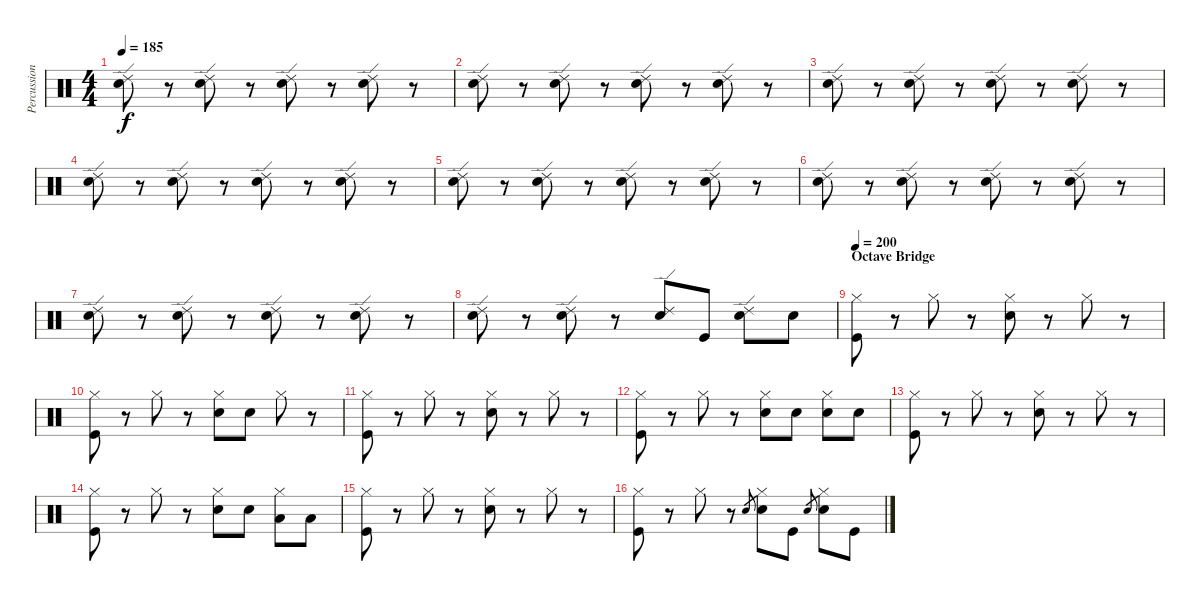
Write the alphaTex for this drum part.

\track ("Percussion" "Percussion") {instrument percussion}
\staff {score}
\articulation defaults
\ts (4 4)
\tempo 185
\clef neutral
\ks c
("Ride (edge) 2" "Snare (hit) 2").8{dy f} r.8 ("Ride (edge) 2" "Snare (hit) 2").8 r.8 ("Ride (edge) 2" "Snare (hit) 2").8 r.8 ("Ride (edge) 2" "Snare (hit) 2").8 r.8 |
("Ride (edge) 2" "Snare (hit) 2").8 r.8 ("Ride (edge) 2" "Snare (hit) 2").8 r.8 ("Ride (edge) 2" "Snare (hit) 2").8 r.8 ("Ride (edge) 2" "Snare (hit) 2").8 r.8 |
("Ride (edge) 2" "Snare (hit) 2").8 r.8 ("Ride (edge) 2" "Snare (hit) 2").8 r.8 ("Ride (edge) 2" "Snare (hit) 2").8 r.8 ("Ride (edge) 2" "Snare (hit) 2").8 r.8 |
("Ride (edge) 2" "Snare (hit) 2").8 r.8 ("Ride (edge) 2" "Snare (hit) 2").8 r.8 ("Ride (edge) 2" "Snare (hit) 2").8 r.8 ("Ride (edge) 2" "Snare (hit) 2").8 r.8 |
("Ride (edge) 2" "Snare (hit) 2").8 r.8 ("Ride (edge) 2" "Snare (hit) 2").8 r.8 ("Ride (edge) 2" "Snare (hit) 2").8 r.8 ("Ride (edge) 2" "Snare (hit) 2").8 r.8 |
("Ride (edge) 2" "Snare (hit) 2").8 r.8 ("Ride (edge) 2" "Snare (hit) 2").8 r.8 ("Ride (edge) 2" "Snare (hit) 2").8 r.8 ("Ride (edge) 2" "Snare (hit) 2").8 r.8 |
("Ride (edge) 2" "Snare (hit) 2").8 r.8 ("Ride (edge) 2" "Snare (hit) 2").8 r.8 ("Ride (edge) 2" "Snare (hit) 2").8 r.8 ("Ride (edge) 2" "Snare (hit) 2").8 r.8 |
("Ride (edge) 2" "Snare (hit) 2").8 r.8 ("Ride (edge) 2" "Snare (hit) 2").8 r.8 ("Ride (edge) 2" "Snare (hit) 2").8 "Kick (hit)".8 ("Ride (edge) 2" "Snare (hit) 2").8 "Snare (hit) 2".8 |
\section ("" "Octave Bridge")
\tempo 200
("Hi-Hat (closed)" "Kick (hit)").8 r.8 "Hi-Hat (closed)".8 r.8 ("Hi-Hat (closed)" "Snare (hit) 2").8 r.8 "Hi-Hat (closed)".8 r.8 |
("Hi-Hat (closed)" "Kick (hit)").8 r.8 "Hi-Hat (closed)".8 r.8 ("Hi-Hat (closed)" "Snare (hit) 2").8 "Snare (hit) 2".8 "Hi-Hat (closed)".8 r.8 |
("Hi-Hat (closed)" "Kick (hit)").8 r.8 "Hi-Hat (closed)".8 r.8 ("Hi-Hat (closed)" "Snare (hit) 2").8 r.8 "Hi-Hat (closed)".8 r.8 |
("Hi-Hat (closed)" "Kick (hit)").8 r.8 "Hi-Hat (closed)".8 r.8 ("Hi-Hat (closed)" "Snare (hit) 2").8 "Snare (hit) 2".8 ("Hi-Hat (closed)" "Snare (hit) 2").8 "Snare (hit) 2".8 |
("Hi-Hat (closed)" "Kick (hit)").8 r.8 "Hi-Hat (closed)".8 r.8 ("Hi-Hat (closed)" "Snare (hit) 2").8 r.8 "Hi-Hat (closed)".8 r.8 |
("Hi-Hat (closed)" "Kick (hit)").8 r.8 "Hi-Hat (closed)".8 r.8 ("Hi-Hat (closed)" "Snare (hit) 2").8 "Snare (hit) 2".8 ("Hi-Hat (closed)" "Low Tom (hit)").8 "Low Tom (hit)".8 |
("Hi-Hat (closed)" "Kick (hit)").8 r.8 "Hi-Hat (closed)".8 r.8 ("Hi-Hat (closed)" "Snare (hit) 2").8 r.8 "Hi-Hat (closed)".8 r.8 |
("Hi-Hat (closed)" "Kick (hit)").8 r.8 "Hi-Hat (closed)".8 r.8 "Snare (hit) 2".8{gr} ("Hi-Hat (closed)" "Snare (hit) 2").8 "Kick (hit)".8 "Snare (hit) 2".8{gr} ("Hi-Hat (closed)" "Snare (hit) 2").8 "Kick (hit)".8
